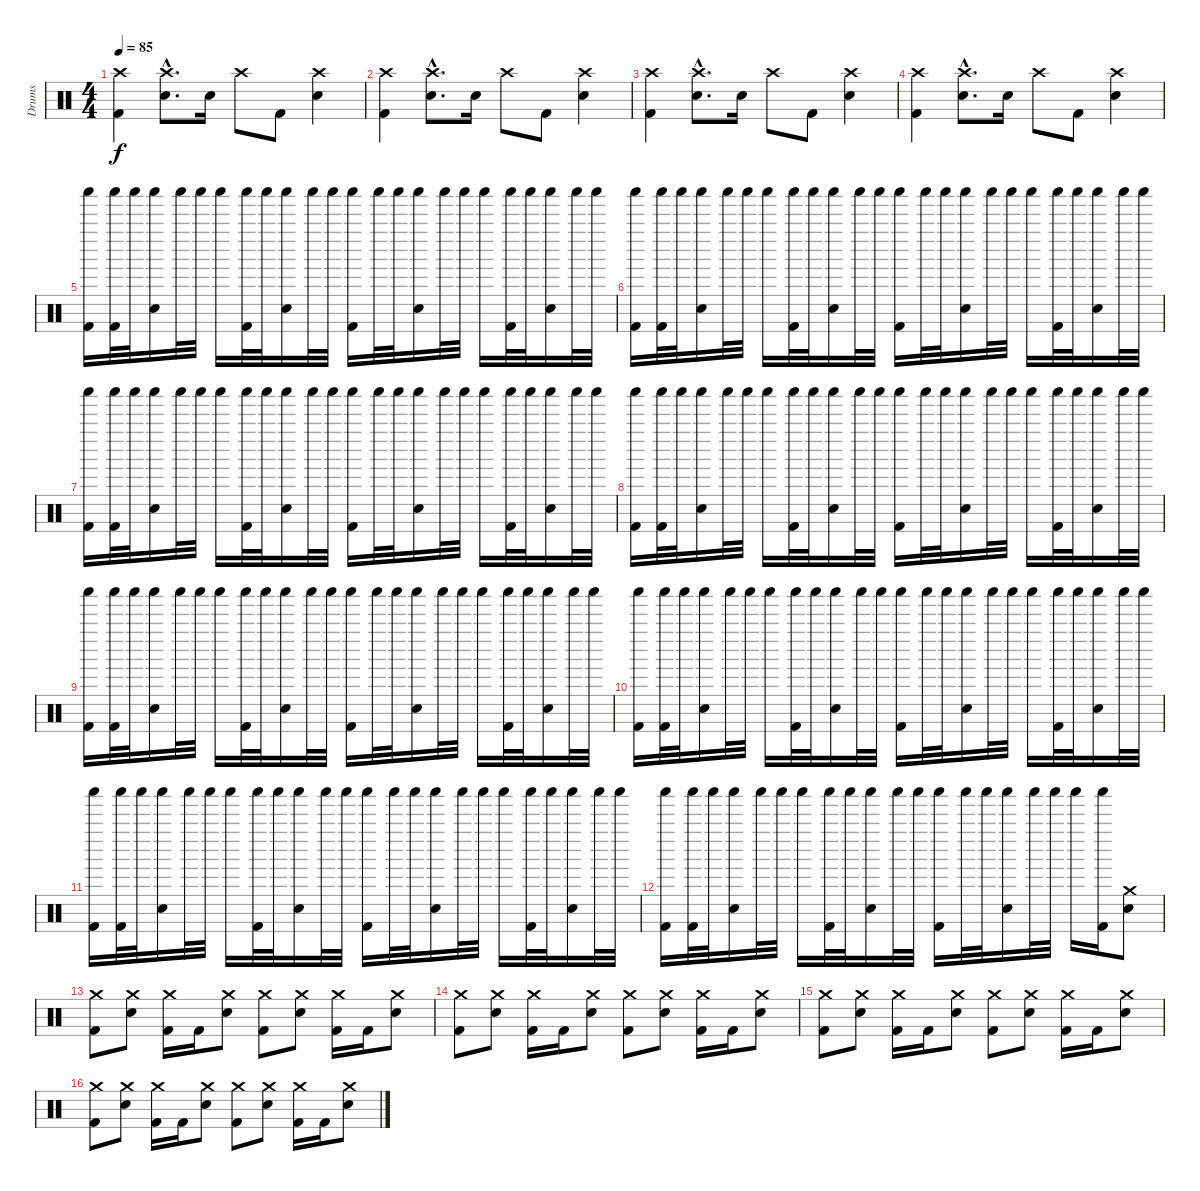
\track ("Drums" "Drums") {instrument percussion}
\staff {score}
\articulation defaults
\ts (4 4)
\tempo 85
\clef neutral
\ks c
("Crash high (hit)" "Kick (hit) 2").4{dy f} ("Crash high (hit)"{hac} "Snare (hit) 2"{hac}).8{d} "Snare (hit) 2".16 "Crash high (hit)".8 "Kick (hit) 2".8 ("Crash high (hit)" "Snare (hit) 2").4 |
("Crash high (hit)" "Kick (hit) 2").4 ("Crash high (hit)"{hac} "Snare (hit) 2"{hac}).8{d} "Snare (hit) 2".16 "Crash high (hit)".8 "Kick (hit) 2".8 ("Crash high (hit)" "Snare (hit) 2").4 |
("Crash high (hit)" "Kick (hit) 2").4 ("Crash high (hit)"{hac} "Snare (hit) 2"{hac}).8{d} "Snare (hit) 2".16 "Crash high (hit)".8 "Kick (hit) 2".8 ("Crash high (hit)" "Snare (hit) 2").4 |
("Crash high (hit)" "Kick (hit) 2").4 ("Crash high (hit)"{hac} "Snare (hit) 2"{hac}).8{d} "Snare (hit) 2".16 "Crash high (hit)".8 "Kick (hit) 2".8 ("Crash high (hit)" "Snare (hit) 2").4 |
("Shaker (hit)" "Kick (hit) 2").16 ("Shaker (hit)" "Kick (hit) 2").32 "Shaker (hit)".32 ("Shaker (hit)" "Snare (hit) 2").16 "Shaker (hit)".32 "Shaker (hit)".32 "Shaker (hit)".16 ("Shaker (hit)" "Kick (hit) 2").32 "Shaker (hit)".32 ("Shaker (hit)" "Snare (hit) 2").16 "Shaker (hit)".32 "Shaker (hit)".32 ("Shaker (hit)" "Kick (hit) 2").16 "Shaker (hit)".32 "Shaker (hit)".32 ("Shaker (hit)" "Snare (hit) 2").16 "Shaker (hit)".32 "Shaker (hit)".32 "Shaker (hit)".16 ("Shaker (hit)" "Kick (hit) 2").32 "Shaker (hit)".32 ("Shaker (hit)" "Snare (hit) 2").16 "Shaker (hit)".32 "Shaker (hit)".32 |
("Shaker (hit)" "Kick (hit) 2").16 ("Shaker (hit)" "Kick (hit) 2").32 "Shaker (hit)".32 ("Shaker (hit)" "Snare (hit) 2").16 "Shaker (hit)".32 "Shaker (hit)".32 "Shaker (hit)".16 ("Shaker (hit)" "Kick (hit) 2").32 "Shaker (hit)".32 ("Shaker (hit)" "Snare (hit) 2").16 "Shaker (hit)".32 "Shaker (hit)".32 ("Shaker (hit)" "Kick (hit) 2").16 "Shaker (hit)".32 "Shaker (hit)".32 ("Shaker (hit)" "Snare (hit) 2").16 "Shaker (hit)".32 "Shaker (hit)".32 "Shaker (hit)".16 ("Shaker (hit)" "Kick (hit) 2").32 "Shaker (hit)".32 ("Shaker (hit)" "Snare (hit) 2").16 "Shaker (hit)".32 "Shaker (hit)".32 |
("Shaker (hit)" "Kick (hit) 2").16 ("Shaker (hit)" "Kick (hit) 2").32 "Shaker (hit)".32 ("Shaker (hit)" "Snare (hit) 2").16 "Shaker (hit)".32 "Shaker (hit)".32 "Shaker (hit)".16 ("Shaker (hit)" "Kick (hit) 2").32 "Shaker (hit)".32 ("Shaker (hit)" "Snare (hit) 2").16 "Shaker (hit)".32 "Shaker (hit)".32 ("Shaker (hit)" "Kick (hit) 2").16 "Shaker (hit)".32 "Shaker (hit)".32 ("Shaker (hit)" "Snare (hit) 2").16 "Shaker (hit)".32 "Shaker (hit)".32 "Shaker (hit)".16 ("Shaker (hit)" "Kick (hit) 2").32 "Shaker (hit)".32 ("Shaker (hit)" "Snare (hit) 2").16 "Shaker (hit)".32 "Shaker (hit)".32 |
("Shaker (hit)" "Kick (hit) 2").16 ("Shaker (hit)" "Kick (hit) 2").32 "Shaker (hit)".32 ("Shaker (hit)" "Snare (hit) 2").16 "Shaker (hit)".32 "Shaker (hit)".32 "Shaker (hit)".16 ("Shaker (hit)" "Kick (hit) 2").32 "Shaker (hit)".32 ("Shaker (hit)" "Snare (hit) 2").16 "Shaker (hit)".32 "Shaker (hit)".32 ("Shaker (hit)" "Kick (hit) 2").16 "Shaker (hit)".32 "Shaker (hit)".32 ("Shaker (hit)" "Snare (hit) 2").16 "Shaker (hit)".32 "Shaker (hit)".32 "Shaker (hit)".16 ("Shaker (hit)" "Kick (hit) 2").32 "Shaker (hit)".32 ("Shaker (hit)" "Snare (hit) 2").16 "Shaker (hit)".32 "Shaker (hit)".32 |
("Shaker (hit)" "Kick (hit) 2").16 ("Shaker (hit)" "Kick (hit) 2").32 "Shaker (hit)".32 ("Shaker (hit)" "Snare (hit) 2").16 "Shaker (hit)".32 "Shaker (hit)".32 "Shaker (hit)".16 ("Shaker (hit)" "Kick (hit) 2").32 "Shaker (hit)".32 ("Shaker (hit)" "Snare (hit) 2").16 "Shaker (hit)".32 "Shaker (hit)".32 ("Shaker (hit)" "Kick (hit) 2").16 "Shaker (hit)".32 "Shaker (hit)".32 ("Shaker (hit)" "Snare (hit) 2").16 "Shaker (hit)".32 "Shaker (hit)".32 "Shaker (hit)".16 ("Shaker (hit)" "Kick (hit) 2").32 "Shaker (hit)".32 ("Shaker (hit)" "Snare (hit) 2").16 "Shaker (hit)".32 "Shaker (hit)".32 |
("Shaker (hit)" "Kick (hit) 2").16 ("Shaker (hit)" "Kick (hit) 2").32 "Shaker (hit)".32 ("Shaker (hit)" "Snare (hit) 2").16 "Shaker (hit)".32 "Shaker (hit)".32 "Shaker (hit)".16 ("Shaker (hit)" "Kick (hit) 2").32 "Shaker (hit)".32 ("Shaker (hit)" "Snare (hit) 2").16 "Shaker (hit)".32 "Shaker (hit)".32 ("Shaker (hit)" "Kick (hit) 2").16 "Shaker (hit)".32 "Shaker (hit)".32 ("Shaker (hit)" "Snare (hit) 2").16 "Shaker (hit)".32 "Shaker (hit)".32 "Shaker (hit)".16 ("Shaker (hit)" "Kick (hit) 2").32 "Shaker (hit)".32 ("Shaker (hit)" "Snare (hit) 2").16 "Shaker (hit)".32 "Shaker (hit)".32 |
("Shaker (hit)" "Kick (hit) 2").16 ("Shaker (hit)" "Kick (hit) 2").32 "Shaker (hit)".32 ("Shaker (hit)" "Snare (hit) 2").16 "Shaker (hit)".32 "Shaker (hit)".32 "Shaker (hit)".16 ("Shaker (hit)" "Kick (hit) 2").32 "Shaker (hit)".32 ("Shaker (hit)" "Snare (hit) 2").16 "Shaker (hit)".32 "Shaker (hit)".32 ("Shaker (hit)" "Kick (hit) 2").16 "Shaker (hit)".32 "Shaker (hit)".32 ("Shaker (hit)" "Snare (hit) 2").16 "Shaker (hit)".32 "Shaker (hit)".32 "Shaker (hit)".16 ("Shaker (hit)" "Kick (hit) 2").32 "Shaker (hit)".32 ("Shaker (hit)" "Snare (hit) 2").16 "Shaker (hit)".32 "Shaker (hit)".32 |
("Shaker (hit)" "Kick (hit) 2").16 ("Shaker (hit)" "Kick (hit) 2").32 "Shaker (hit)".32 ("Shaker (hit)" "Snare (hit) 2").16 "Shaker (hit)".32 "Shaker (hit)".32 "Shaker (hit)".16 ("Shaker (hit)" "Kick (hit) 2").32 "Shaker (hit)".32 ("Shaker (hit)" "Snare (hit) 2").16 "Shaker (hit)".32 "Shaker (hit)".32 ("Shaker (hit)" "Kick (hit) 2").16 "Shaker (hit)".32 "Shaker (hit)".32 ("Shaker (hit)" "Snare (hit) 2").16 "Shaker (hit)".32 "Shaker (hit)".32 "Shaker (hit)".16 ("Shaker (hit)" "Kick (hit) 2").16 ("Crash medium (hit)" "Snare (hit) 2").8 |
("Crash medium (hit)" "Kick (hit) 2").8 ("Crash medium (hit)" "Snare (hit) 2").8 ("Crash medium (hit)" "Kick (hit) 2").16 "Kick (hit) 2".16 ("Crash medium (hit)" "Snare (hit) 2").8 ("Crash medium (hit)" "Kick (hit) 2").8 ("Crash medium (hit)" "Snare (hit) 2").8 ("Crash medium (hit)" "Kick (hit) 2").16 "Kick (hit) 2".16 ("Crash medium (hit)" "Snare (hit) 2").8 |
("Crash medium (hit)" "Kick (hit) 2").8 ("Crash medium (hit)" "Snare (hit) 2").8 ("Crash medium (hit)" "Kick (hit) 2").16 "Kick (hit) 2".16 ("Crash medium (hit)" "Snare (hit) 2").8 ("Crash medium (hit)" "Kick (hit) 2").8 ("Crash medium (hit)" "Snare (hit) 2").8 ("Crash medium (hit)" "Kick (hit) 2").16 "Kick (hit) 2".16 ("Crash medium (hit)" "Snare (hit) 2").8 |
("Crash medium (hit)" "Kick (hit) 2").8 ("Crash medium (hit)" "Snare (hit) 2").8 ("Crash medium (hit)" "Kick (hit) 2").16 "Kick (hit) 2".16 ("Crash medium (hit)" "Snare (hit) 2").8 ("Crash medium (hit)" "Kick (hit) 2").8 ("Crash medium (hit)" "Snare (hit) 2").8 ("Crash medium (hit)" "Kick (hit) 2").16 "Kick (hit) 2".16 ("Crash medium (hit)" "Snare (hit) 2").8 |
("Crash medium (hit)" "Kick (hit) 2").8 ("Crash medium (hit)" "Snare (hit) 2").8 ("Crash medium (hit)" "Kick (hit) 2").16 "Kick (hit) 2".16 ("Crash medium (hit)" "Snare (hit) 2").8 ("Crash medium (hit)" "Kick (hit) 2").8 ("Crash medium (hit)" "Snare (hit) 2").8 ("Crash medium (hit)" "Kick (hit) 2").16 "Kick (hit) 2".16 ("Crash medium (hit)" "Snare (hit) 2").8
